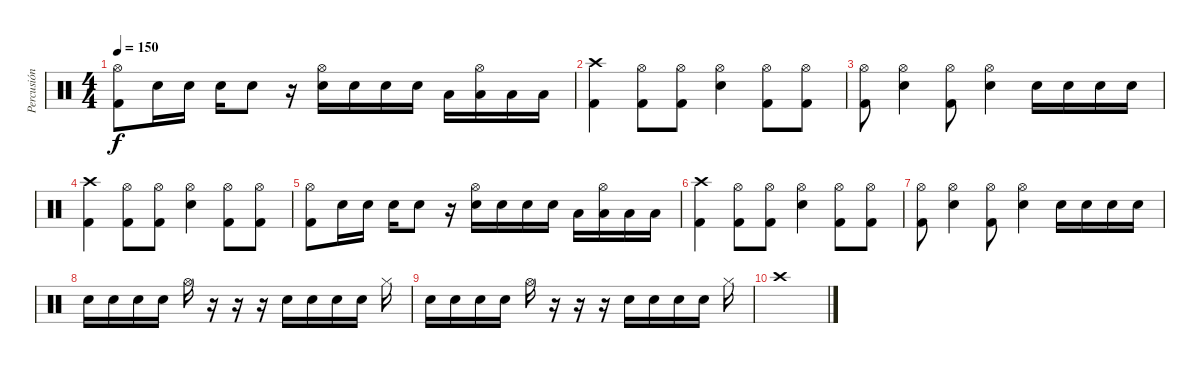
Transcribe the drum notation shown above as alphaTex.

\track ("Percusión" "Percusión") {instrument percussion}
\staff {score}
\articulation defaults
\ts (4 4)
\tempo 150
\clef neutral
\ks c
("Hi-Hat (open)" "Kick (hit) 2").8{dy f} "Electric Snare (hit)".16 "Electric Snare (hit)".16 "Electric Snare (hit)".16 "Electric Snare (hit)".8 r.16 ("Hi-Hat (open)" "Electric Snare (hit)").16 "Electric Snare (hit)".16 "Electric Snare (hit)".16 "Electric Snare (hit)".16 "Low Tom (hit)".16 ("Hi-Hat (open)" "Low Tom (hit)").16 "Low Tom (hit)".16 "Low Tom (hit)".16 |
("Crash high (hit)" "Kick (hit) 2").4 ("Hi-Hat (open)" "Kick (hit) 2").8 ("Hi-Hat (open)" "Kick (hit) 2").8 ("Hi-Hat (open)" "Electric Snare (hit)").4 ("Hi-Hat (open)" "Kick (hit) 2").8 ("Hi-Hat (open)" "Kick (hit) 2").8 |
("Hi-Hat (open)" "Kick (hit) 2").8 ("Hi-Hat (open)" "Electric Snare (hit)").4 ("Hi-Hat (open)" "Kick (hit) 2").8 ("Hi-Hat (open)" "Electric Snare (hit)").4 "Electric Snare (hit)".16 "Electric Snare (hit)".16 "Electric Snare (hit)".16 "Electric Snare (hit)".16 |
("Crash high (hit)" "Kick (hit) 2").4 ("Hi-Hat (open)" "Kick (hit) 2").8 ("Hi-Hat (open)" "Kick (hit) 2").8 ("Hi-Hat (open)" "Electric Snare (hit)").4 ("Hi-Hat (open)" "Kick (hit) 2").8 ("Hi-Hat (open)" "Kick (hit) 2").8 |
("Hi-Hat (open)" "Kick (hit) 2").8 "Electric Snare (hit)".16 "Electric Snare (hit)".16 "Electric Snare (hit)".16 "Electric Snare (hit)".8 r.16 ("Hi-Hat (open)" "Electric Snare (hit)").16 "Electric Snare (hit)".16 "Electric Snare (hit)".16 "Electric Snare (hit)".16 "Low Tom (hit)".16 ("Hi-Hat (open)" "Low Tom (hit)").16 "Low Tom (hit)".16 "Low Tom (hit)".16 |
("Crash high (hit)" "Kick (hit) 2").4 ("Hi-Hat (open)" "Kick (hit) 2").8 ("Hi-Hat (open)" "Kick (hit) 2").8 ("Hi-Hat (open)" "Electric Snare (hit)").4 ("Hi-Hat (open)" "Kick (hit) 2").8 ("Hi-Hat (open)" "Kick (hit) 2").8 |
("Hi-Hat (open)" "Kick (hit) 2").8 ("Hi-Hat (open)" "Electric Snare (hit)").4 ("Hi-Hat (open)" "Kick (hit) 2").8 ("Hi-Hat (open)" "Electric Snare (hit)").4 "Electric Snare (hit)".16 "Electric Snare (hit)".16 "Electric Snare (hit)".16 "Electric Snare (hit)".16 |
"Electric Snare (hit)".16 "Electric Snare (hit)".16 "Electric Snare (hit)".16 "Electric Snare (hit)".16 "Hi-Hat (open)".16 r.16 r.16 r.16 "Electric Snare (hit)".16 "Electric Snare (hit)".16 "Electric Snare (hit)".16 "Electric Snare (hit)".16 "Hi-Hat (closed)".16 |
"Electric Snare (hit)".16 "Electric Snare (hit)".16 "Electric Snare (hit)".16 "Electric Snare (hit)".16 "Hi-Hat (open)".16 r.16 r.16 r.16 "Electric Snare (hit)".16 "Electric Snare (hit)".16 "Electric Snare (hit)".16 "Electric Snare (hit)".16 "Hi-Hat (closed)".16 |
"Crash high (hit)".1
